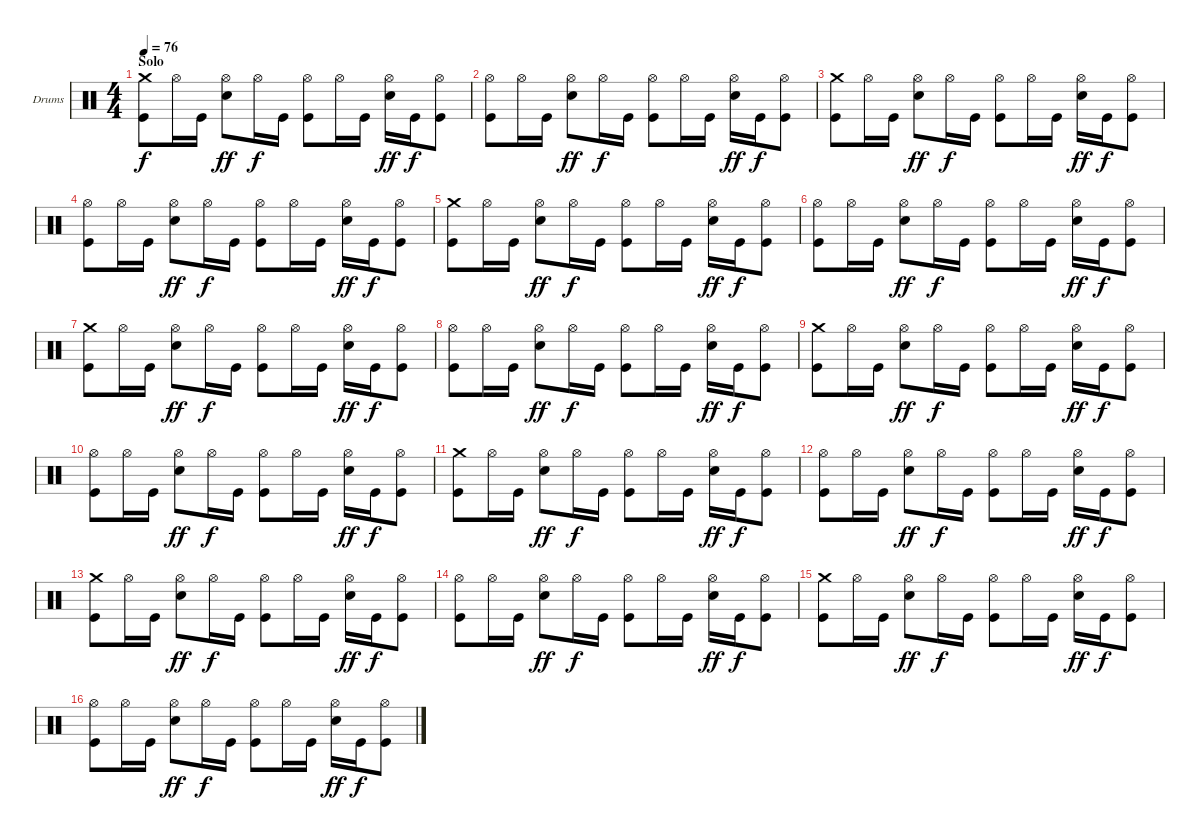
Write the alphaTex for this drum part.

\defaultSystemsLayout 4
\bracketExtendMode nobrackets
\firstSystemTrackNameOrientation horizontal
\otherSystemsTrackNameOrientation horizontal
\track ("Dave Krusen" "Drums") {instrument percussion}
\staff {score}
\articulation defaults
\ts (4 4)
\section ("" "Solo")
\tempo 76
\clef neutral
\ks c
("Crash medium (hit)" "Kick (hit)").8{dy f} "Hi-Hat (open)".16 "Kick (hit)".16 ("Snare (hit) 2" "Hi-Hat (open)").8{dy ff} "Hi-Hat (open)".16{dy f} "Kick (hit)".16 ("Kick (hit)" "Hi-Hat (open)").8 "Hi-Hat (open)".16 "Kick (hit)".16 ("Snare (hit) 2" "Hi-Hat (open)").16{dy ff} "Kick (hit)".16{dy f} ("Kick (hit)" "Hi-Hat (open)").8 |
("Hi-Hat (open)" "Kick (hit)").8 "Hi-Hat (open)".16 "Kick (hit)".16 ("Snare (hit) 2" "Hi-Hat (open)").8{dy ff} "Hi-Hat (open)".16{dy f} "Kick (hit)".16 ("Kick (hit)" "Hi-Hat (open)").8 "Hi-Hat (open)".16 "Kick (hit)".16 ("Snare (hit) 2" "Hi-Hat (open)").16{dy ff} "Kick (hit)".16{dy f} ("Kick (hit)" "Hi-Hat (open)").8 |
("Crash medium (hit)" "Kick (hit)").8 "Hi-Hat (open)".16 "Kick (hit)".16 ("Snare (hit) 2" "Hi-Hat (open)").8{dy ff} "Hi-Hat (open)".16{dy f} "Kick (hit)".16 ("Kick (hit)" "Hi-Hat (open)").8 "Hi-Hat (open)".16 "Kick (hit)".16 ("Snare (hit) 2" "Hi-Hat (open)").16{dy ff} "Kick (hit)".16{dy f} ("Kick (hit)" "Hi-Hat (open)").8 |
("Hi-Hat (open)" "Kick (hit)").8 "Hi-Hat (open)".16 "Kick (hit)".16 ("Snare (hit) 2" "Hi-Hat (open)").8{dy ff} "Hi-Hat (open)".16{dy f} "Kick (hit)".16 ("Kick (hit)" "Hi-Hat (open)").8 "Hi-Hat (open)".16 "Kick (hit)".16 ("Snare (hit) 2" "Hi-Hat (open)").16{dy ff} "Kick (hit)".16{dy f} ("Kick (hit)" "Hi-Hat (open)").8 |
("Crash medium (hit)" "Kick (hit)").8 "Hi-Hat (open)".16 "Kick (hit)".16 ("Snare (hit) 2" "Hi-Hat (open)").8{dy ff} "Hi-Hat (open)".16{dy f} "Kick (hit)".16 ("Kick (hit)" "Hi-Hat (open)").8 "Hi-Hat (open)".16 "Kick (hit)".16 ("Snare (hit) 2" "Hi-Hat (open)").16{dy ff} "Kick (hit)".16{dy f} ("Kick (hit)" "Hi-Hat (open)").8 |
("Hi-Hat (open)" "Kick (hit)").8 "Hi-Hat (open)".16 "Kick (hit)".16 ("Snare (hit) 2" "Hi-Hat (open)").8{dy ff} "Hi-Hat (open)".16{dy f} "Kick (hit)".16 ("Kick (hit)" "Hi-Hat (open)").8 "Hi-Hat (open)".16 "Kick (hit)".16 ("Snare (hit) 2" "Hi-Hat (open)").16{dy ff} "Kick (hit)".16{dy f} ("Kick (hit)" "Hi-Hat (open)").8 |
("Crash medium (hit)" "Kick (hit)").8 "Hi-Hat (open)".16 "Kick (hit)".16 ("Snare (hit) 2" "Hi-Hat (open)").8{dy ff} "Hi-Hat (open)".16{dy f} "Kick (hit)".16 ("Kick (hit)" "Hi-Hat (open)").8 "Hi-Hat (open)".16 "Kick (hit)".16 ("Snare (hit) 2" "Hi-Hat (open)").16{dy ff} "Kick (hit)".16{dy f} ("Kick (hit)" "Hi-Hat (open)").8 |
("Hi-Hat (open)" "Kick (hit)").8 "Hi-Hat (open)".16 "Kick (hit)".16 ("Snare (hit) 2" "Hi-Hat (open)").8{dy ff} "Hi-Hat (open)".16{dy f} "Kick (hit)".16 ("Kick (hit)" "Hi-Hat (open)").8 "Hi-Hat (open)".16 "Kick (hit)".16 ("Snare (hit) 2" "Hi-Hat (open)").16{dy ff} "Kick (hit)".16{dy f} ("Kick (hit)" "Hi-Hat (open)").8 |
("Crash medium (hit)" "Kick (hit)").8 "Hi-Hat (open)".16 "Kick (hit)".16 ("Snare (hit) 2" "Hi-Hat (open)").8{dy ff} "Hi-Hat (open)".16{dy f} "Kick (hit)".16 ("Kick (hit)" "Hi-Hat (open)").8 "Hi-Hat (open)".16 "Kick (hit)".16 ("Snare (hit) 2" "Hi-Hat (open)").16{dy ff} "Kick (hit)".16{dy f} ("Kick (hit)" "Hi-Hat (open)").8 |
("Hi-Hat (open)" "Kick (hit)").8 "Hi-Hat (open)".16 "Kick (hit)".16 ("Snare (hit) 2" "Hi-Hat (open)").8{dy ff} "Hi-Hat (open)".16{dy f} "Kick (hit)".16 ("Kick (hit)" "Hi-Hat (open)").8 "Hi-Hat (open)".16 "Kick (hit)".16 ("Snare (hit) 2" "Hi-Hat (open)").16{dy ff} "Kick (hit)".16{dy f} ("Kick (hit)" "Hi-Hat (open)").8 |
("Crash medium (hit)" "Kick (hit)").8 "Hi-Hat (open)".16 "Kick (hit)".16 ("Snare (hit) 2" "Hi-Hat (open)").8{dy ff} "Hi-Hat (open)".16{dy f} "Kick (hit)".16 ("Kick (hit)" "Hi-Hat (open)").8 "Hi-Hat (open)".16 "Kick (hit)".16 ("Snare (hit) 2" "Hi-Hat (open)").16{dy ff} "Kick (hit)".16{dy f} ("Kick (hit)" "Hi-Hat (open)").8 |
("Hi-Hat (open)" "Kick (hit)").8 "Hi-Hat (open)".16 "Kick (hit)".16 ("Snare (hit) 2" "Hi-Hat (open)").8{dy ff} "Hi-Hat (open)".16{dy f} "Kick (hit)".16 ("Kick (hit)" "Hi-Hat (open)").8 "Hi-Hat (open)".16 "Kick (hit)".16 ("Snare (hit) 2" "Hi-Hat (open)").16{dy ff} "Kick (hit)".16{dy f} ("Kick (hit)" "Hi-Hat (open)").8 |
("Crash medium (hit)" "Kick (hit)").8 "Hi-Hat (open)".16 "Kick (hit)".16 ("Snare (hit) 2" "Hi-Hat (open)").8{dy ff} "Hi-Hat (open)".16{dy f} "Kick (hit)".16 ("Kick (hit)" "Hi-Hat (open)").8 "Hi-Hat (open)".16 "Kick (hit)".16 ("Snare (hit) 2" "Hi-Hat (open)").16{dy ff} "Kick (hit)".16{dy f} ("Kick (hit)" "Hi-Hat (open)").8 |
("Hi-Hat (open)" "Kick (hit)").8 "Hi-Hat (open)".16 "Kick (hit)".16 ("Snare (hit) 2" "Hi-Hat (open)").8{dy ff} "Hi-Hat (open)".16{dy f} "Kick (hit)".16 ("Kick (hit)" "Hi-Hat (open)").8 "Hi-Hat (open)".16 "Kick (hit)".16 ("Snare (hit) 2" "Hi-Hat (open)").16{dy ff} "Kick (hit)".16{dy f} ("Kick (hit)" "Hi-Hat (open)").8 |
("Crash medium (hit)" "Kick (hit)").8 "Hi-Hat (open)".16 "Kick (hit)".16 ("Snare (hit) 2" "Hi-Hat (open)").8{dy ff} "Hi-Hat (open)".16{dy f} "Kick (hit)".16 ("Kick (hit)" "Hi-Hat (open)").8 "Hi-Hat (open)".16 "Kick (hit)".16 ("Snare (hit) 2" "Hi-Hat (open)").16{dy ff} "Kick (hit)".16{dy f} ("Kick (hit)" "Hi-Hat (open)").8 |
("Hi-Hat (open)" "Kick (hit)").8 "Hi-Hat (open)".16 "Kick (hit)".16 ("Snare (hit) 2" "Hi-Hat (open)").8{dy ff} "Hi-Hat (open)".16{dy f} "Kick (hit)".16 ("Kick (hit)" "Hi-Hat (open)").8 "Hi-Hat (open)".16 "Kick (hit)".16 ("Snare (hit) 2" "Hi-Hat (open)").16{dy ff} "Kick (hit)".16{dy f} ("Kick (hit)" "Hi-Hat (open)").8
